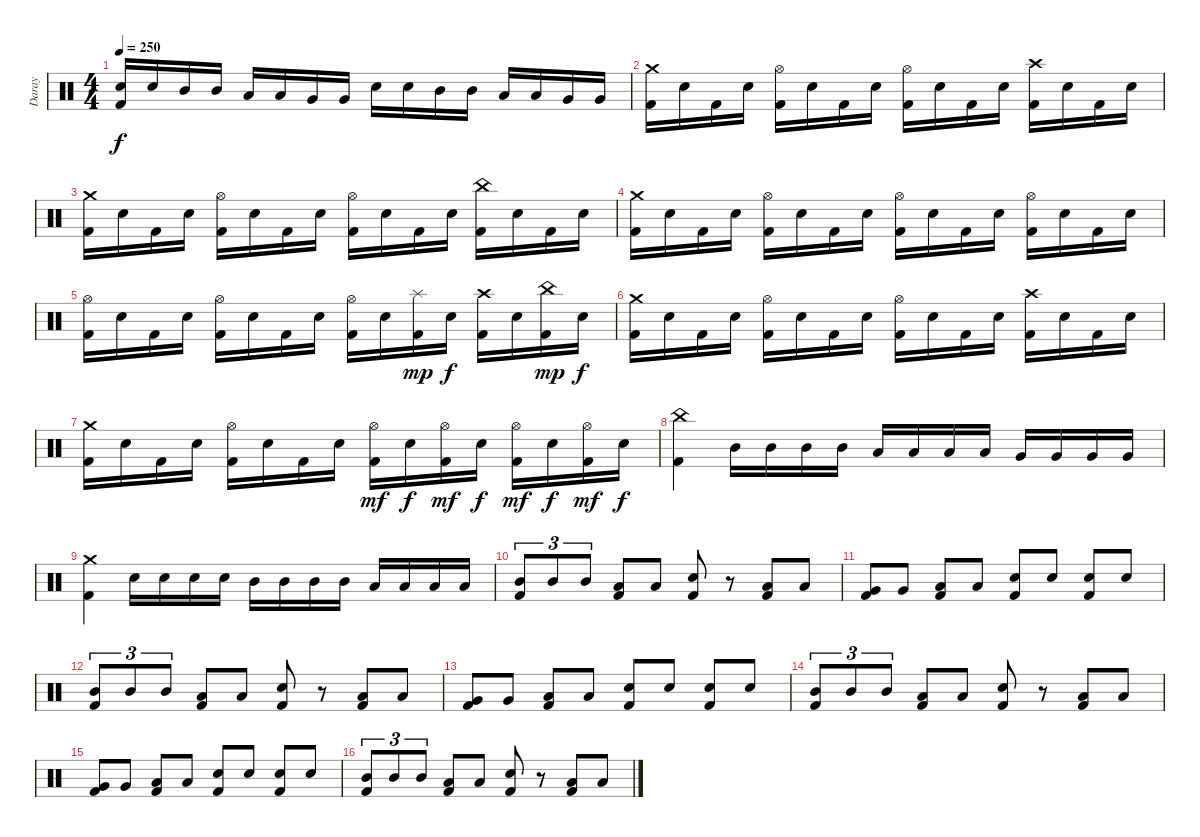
\track ("Daray" "Daray") {instrument percussion}
\staff {score}
\articulation defaults
\ts (4 4)
\tempo 250
\clef neutral
\ks c
("Electric Snare (hit)" "Kick (hit) 2").16{dy f} "Electric Snare (hit)".16 "Mid Tom (hit)".16 "Mid Tom (hit)".16 "Low Tom (hit)".16 "Low Tom (hit)".16 "Very Low Tom (hit)".16 "Very Low Tom (hit)".16 "Electric Snare (hit)".16 "Electric Snare (hit)".16 "Mid Tom (hit)".16 "Mid Tom (hit)".16 "Low Tom (hit)".16 "Low Tom (hit)".16 "Very Low Tom (hit)".16 "Very Low Tom (hit)".16 |
("Crash medium (hit)" "Kick (hit) 2").16 "Electric Snare (hit)".16 "Kick (hit) 2".16 "Electric Snare (hit)".16 ("Hi-Hat (open)" "Kick (hit) 2").16 "Electric Snare (hit)".16 "Kick (hit) 2".16 "Electric Snare (hit)".16 ("Hi-Hat (open)" "Kick (hit) 2").16 "Electric Snare (hit)".16 "Kick (hit) 2".16 "Electric Snare (hit)".16 ("Crash high (hit)" "Kick (hit) 2").16 "Electric Snare (hit)".16 "Kick (hit) 2".16 "Electric Snare (hit)".16 |
("Crash medium (hit)" "Kick (hit) 2").16 "Electric Snare (hit)".16 "Kick (hit) 2".16 "Electric Snare (hit)".16 ("Hi-Hat (open)" "Kick (hit) 2").16 "Electric Snare (hit)".16 "Kick (hit) 2".16 "Electric Snare (hit)".16 ("Hi-Hat (open)" "Kick (hit) 2").16 "Electric Snare (hit)".16 "Kick (hit) 2".16 "Electric Snare (hit)".16 ("China (hit)" "Kick (hit) 2").16 "Electric Snare (hit)".16 "Kick (hit) 2".16 "Electric Snare (hit)".16 |
("Crash medium (hit)" "Kick (hit) 2").16 "Electric Snare (hit)".16 "Kick (hit) 2".16 "Electric Snare (hit)".16 ("Hi-Hat (open)" "Kick (hit) 2").16 "Electric Snare (hit)".16 "Kick (hit) 2".16 "Electric Snare (hit)".16 ("Hi-Hat (open)" "Kick (hit) 2").16 "Electric Snare (hit)".16 "Kick (hit) 2".16 "Electric Snare (hit)".16 ("Hi-Hat (open)" "Kick (hit) 2").16 "Electric Snare (hit)".16 "Kick (hit) 2".16 "Electric Snare (hit)".16 |
("Hi-Hat (open)" "Kick (hit) 2").16 "Electric Snare (hit)".16 "Kick (hit) 2".16 "Electric Snare (hit)".16 ("Hi-Hat (open)" "Kick (hit) 2").16 "Electric Snare (hit)".16 "Kick (hit) 2".16 "Electric Snare (hit)".16 ("Hi-Hat (open)" "Kick (hit) 2").16 "Electric Snare (hit)".16 ("Splash (hit)" "Kick (hit) 2").16{dy mp} "Electric Snare (hit)".16{dy f} ("Crash high (hit)" "Kick (hit) 2").16 "Electric Snare (hit)".16 ("China (hit)" "Kick (hit) 2").16{dy mp} "Electric Snare (hit)".16{dy f} |
("Crash medium (hit)" "Kick (hit) 2").16 "Electric Snare (hit)".16 "Kick (hit) 2".16 "Electric Snare (hit)".16 ("Hi-Hat (open)" "Kick (hit) 2").16 "Electric Snare (hit)".16 "Kick (hit) 2".16 "Electric Snare (hit)".16 ("Hi-Hat (open)" "Kick (hit) 2").16 "Electric Snare (hit)".16 "Kick (hit) 2".16 "Electric Snare (hit)".16 ("Crash high (hit)" "Kick (hit) 2").16 "Electric Snare (hit)".16 "Kick (hit) 2".16 "Electric Snare (hit)".16 |
("Crash medium (hit)" "Kick (hit) 2").16 "Electric Snare (hit)".16 "Kick (hit) 2".16 "Electric Snare (hit)".16 ("Hi-Hat (open)" "Kick (hit) 2").16 "Electric Snare (hit)".16 "Kick (hit) 2".16 "Electric Snare (hit)".16 ("Hi-Hat (open)" "Kick (hit) 2").16{dy mf} "Electric Snare (hit)".16{dy f} ("Hi-Hat (open)" "Kick (hit) 2").16{dy mf} "Electric Snare (hit)".16{dy f} ("Hi-Hat (open)" "Kick (hit) 2").16{dy mf} "Electric Snare (hit)".16{dy f} ("Hi-Hat (open)" "Kick (hit) 2").16{dy mf} "Electric Snare (hit)".16{dy f} |
("China (hit)" "Kick (hit) 2").4 "Mid Tom (hit)".16 "Mid Tom (hit)".16 "Mid Tom (hit)".16 "Mid Tom (hit)".16 "Low Tom (hit)".16 "Low Tom (hit)".16 "Low Tom (hit)".16 "Low Tom (hit)".16 "Very Low Tom (hit)".16 "Very Low Tom (hit)".16 "Very Low Tom (hit)".16 "Very Low Tom (hit)".16 |
("Crash medium (hit)" "Kick (hit) 2").4 "Electric Snare (hit)".16 "Electric Snare (hit)".16 "Electric Snare (hit)".16 "Electric Snare (hit)".16 "Mid Tom (hit)".16 "Mid Tom (hit)".16 "Mid Tom (hit)".16 "Mid Tom (hit)".16 "Low Tom (hit)".16 "Low Tom (hit)".16 "Low Tom (hit)".16 "Low Tom (hit)".16 |
("Mid Tom (hit)" "Kick (hit) 2").8{tu (3 2)} "Mid Tom (hit)".8{tu (3 2)} "Mid Tom (hit)".8{tu (3 2)} ("Low Tom (hit)" "Kick (hit) 2").8 "Low Tom (hit)".8 ("Electric Snare (hit)" "Kick (hit) 2").8 r.8 ("Low Tom (hit)" "Kick (hit) 2").8 "Low Tom (hit)".8 |
("Very Low Tom (hit)" "Kick (hit) 2").8 "Very Low Tom (hit)".8 ("Low Floor Tom (hit)" "Kick (hit) 2").8 "Low Floor Tom (hit)".8 ("Electric Snare (hit)" "Kick (hit) 2").8 "Electric Snare (hit)".8 ("Electric Snare (hit)" "Kick (hit) 2").8 "Electric Snare (hit)".8 |
("Mid Tom (hit)" "Kick (hit) 2").8{tu (3 2)} "Mid Tom (hit)".8{tu (3 2)} "Mid Tom (hit)".8{tu (3 2)} ("Low Tom (hit)" "Kick (hit) 2").8 "Low Tom (hit)".8 ("Electric Snare (hit)" "Kick (hit) 2").8 r.8 ("Low Tom (hit)" "Kick (hit) 2").8 "Low Tom (hit)".8 |
("Very Low Tom (hit)" "Kick (hit) 2").8 "Very Low Tom (hit)".8 ("Low Floor Tom (hit)" "Kick (hit) 2").8 "Low Floor Tom (hit)".8 ("Electric Snare (hit)" "Kick (hit) 2").8 "Electric Snare (hit)".8 ("Electric Snare (hit)" "Kick (hit) 2").8 "Electric Snare (hit)".8 |
("Mid Tom (hit)" "Kick (hit) 2").8{tu (3 2)} "Mid Tom (hit)".8{tu (3 2)} "Mid Tom (hit)".8{tu (3 2)} ("Low Tom (hit)" "Kick (hit) 2").8 "Low Tom (hit)".8 ("Electric Snare (hit)" "Kick (hit) 2").8 r.8 ("Low Tom (hit)" "Kick (hit) 2").8 "Low Tom (hit)".8 |
("Very Low Tom (hit)" "Kick (hit) 2").8 "Very Low Tom (hit)".8 ("Low Floor Tom (hit)" "Kick (hit) 2").8 "Low Floor Tom (hit)".8 ("Electric Snare (hit)" "Kick (hit) 2").8 "Electric Snare (hit)".8 ("Electric Snare (hit)" "Kick (hit) 2").8 "Electric Snare (hit)".8 |
("Mid Tom (hit)" "Kick (hit) 2").8{tu (3 2)} "Mid Tom (hit)".8{tu (3 2)} "Mid Tom (hit)".8{tu (3 2)} ("Low Tom (hit)" "Kick (hit) 2").8 "Low Tom (hit)".8 ("Electric Snare (hit)" "Kick (hit) 2").8 r.8 ("Low Tom (hit)" "Kick (hit) 2").8 "Low Tom (hit)".8
